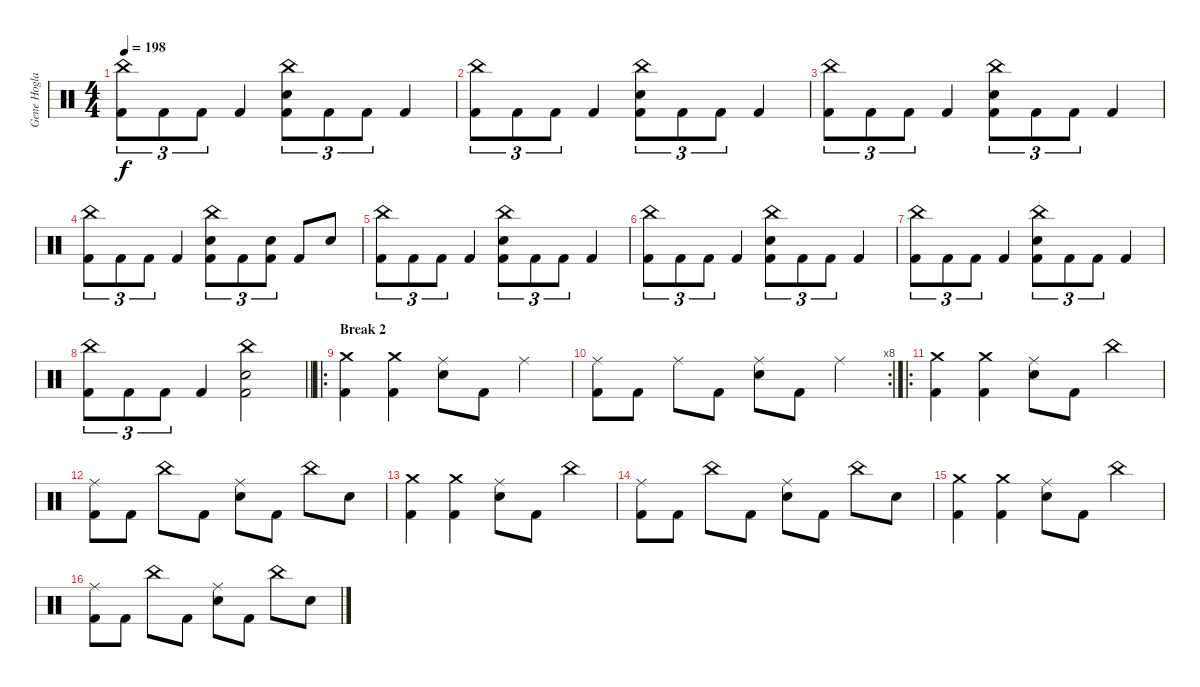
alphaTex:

\track ("Gene Hoglan" "Gene Hogla") {instrument percussion}
\staff {score}
\articulation defaults
\ts (4 4)
\tempo 198
\clef neutral
\ks c
("China (hit)" "Kick (hit) 2").8{tu (3 2) dy f} "Kick (hit) 2".8{tu (3 2)} "Kick (hit) 2".8{tu (3 2)} "Kick (hit) 2".4 ("China (hit)" "Snare (hit) 2" "Kick (hit) 2").8{tu (3 2)} "Kick (hit) 2".8{tu (3 2)} "Kick (hit) 2".8{tu (3 2)} "Kick (hit) 2".4 |
("China (hit)" "Kick (hit) 2").8{tu (3 2)} "Kick (hit) 2".8{tu (3 2)} "Kick (hit) 2".8{tu (3 2)} "Kick (hit) 2".4 ("China (hit)" "Snare (hit) 2" "Kick (hit) 2").8{tu (3 2)} "Kick (hit) 2".8{tu (3 2)} "Kick (hit) 2".8{tu (3 2)} "Kick (hit) 2".4 |
("China (hit)" "Kick (hit) 2").8{tu (3 2)} "Kick (hit) 2".8{tu (3 2)} "Kick (hit) 2".8{tu (3 2)} "Kick (hit) 2".4 ("China (hit)" "Snare (hit) 2" "Kick (hit) 2").8{tu (3 2)} "Kick (hit) 2".8{tu (3 2)} "Kick (hit) 2".8{tu (3 2)} "Kick (hit) 2".4 |
("China (hit)" "Kick (hit) 2").8{tu (3 2)} "Kick (hit) 2".8{tu (3 2)} "Kick (hit) 2".8{tu (3 2)} "Kick (hit) 2".4 ("China (hit)" "Snare (hit) 2" "Kick (hit) 2").8{tu (3 2)} "Kick (hit) 2".8{tu (3 2)} ("Snare (hit) 2" "Kick (hit) 2").8{tu (3 2)} "Kick (hit) 2".8 "Snare (hit) 2".8 |
("China (hit)" "Kick (hit) 2").8{tu (3 2)} "Kick (hit) 2".8{tu (3 2)} "Kick (hit) 2".8{tu (3 2)} "Kick (hit) 2".4 ("China (hit)" "Snare (hit) 2" "Kick (hit) 2").8{tu (3 2)} "Kick (hit) 2".8{tu (3 2)} "Kick (hit) 2".8{tu (3 2)} "Kick (hit) 2".4 |
("China (hit)" "Kick (hit) 2").8{tu (3 2)} "Kick (hit) 2".8{tu (3 2)} "Kick (hit) 2".8{tu (3 2)} "Kick (hit) 2".4 ("China (hit)" "Snare (hit) 2" "Kick (hit) 2").8{tu (3 2)} "Kick (hit) 2".8{tu (3 2)} "Kick (hit) 2".8{tu (3 2)} "Kick (hit) 2".4 |
("China (hit)" "Kick (hit) 2").8{tu (3 2)} "Kick (hit) 2".8{tu (3 2)} "Kick (hit) 2".8{tu (3 2)} "Kick (hit) 2".4 ("China (hit)" "Snare (hit) 2" "Kick (hit) 2").8{tu (3 2)} "Kick (hit) 2".8{tu (3 2)} "Kick (hit) 2".8{tu (3 2)} "Kick (hit) 2".4 |
\barLineRight lightlight
("China (hit)" "Kick (hit) 2").8{tu (3 2)} "Kick (hit) 2".8{tu (3 2)} "Kick (hit) 2".8{tu (3 2)} "Kick (hit) 2".4 ("China (hit)" "Snare (hit) 2" "Kick (hit) 2").2 |
\ro
\section ("" "Break 2")
("Crash medium (hit)" "Kick (hit) 2").4 ("Crash medium (hit)" "Kick (hit) 2").4 ("Ride (middle)" "Snare (hit) 2").8 "Kick (hit) 2".8 "Ride (middle)".4 |
\rc 8
("Ride (middle)" "Kick (hit) 2").8 "Kick (hit) 2".8 "Ride (middle)".8 "Kick (hit) 2".8 ("Ride (middle)" "Snare (hit) 2").8 "Kick (hit) 2".8 "Ride (middle)".4 |
\ro
("Crash medium (hit)" "Kick (hit) 2").4 ("Crash medium (hit)" "Kick (hit) 2").4 ("Ride (middle)" "Snare (hit) 2").8 "Kick (hit) 2".8 "China (hit)".4 |
("Ride (middle)" "Kick (hit) 2").8 "Kick (hit) 2".8 "China (hit)".8 "Kick (hit) 2".8 ("Ride (middle)" "Snare (hit) 2").8 "Kick (hit) 2".8 "China (hit)".8 "Snare (hit) 2".8 |
("Crash medium (hit)" "Kick (hit) 2").4 ("Crash medium (hit)" "Kick (hit) 2").4 ("Ride (middle)" "Snare (hit) 2").8 "Kick (hit) 2".8 "China (hit)".4 |
("Ride (middle)" "Kick (hit) 2").8 "Kick (hit) 2".8 "China (hit)".8 "Kick (hit) 2".8 ("Ride (middle)" "Snare (hit) 2").8 "Kick (hit) 2".8 "China (hit)".8 "Snare (hit) 2".8 |
("Crash medium (hit)" "Kick (hit) 2").4 ("Crash medium (hit)" "Kick (hit) 2").4 ("Ride (middle)" "Snare (hit) 2").8 "Kick (hit) 2".8 "China (hit)".4 |
("Ride (middle)" "Kick (hit) 2").8 "Kick (hit) 2".8 "China (hit)".8 "Kick (hit) 2".8 ("Ride (middle)" "Snare (hit) 2").8 "Kick (hit) 2".8 "China (hit)".8 "Snare (hit) 2".8
